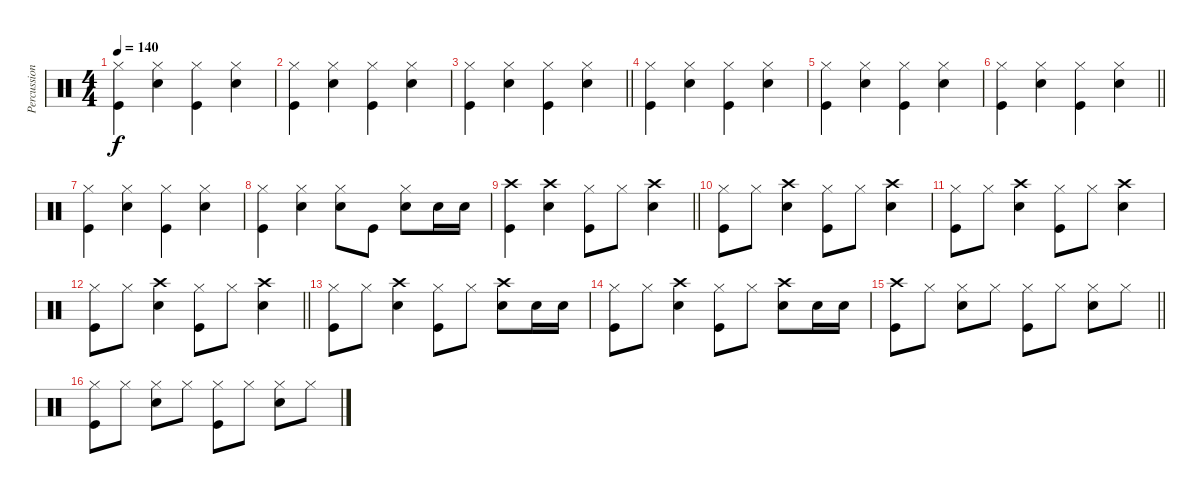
\track ("Percussion" "Percussion") {instrument percussion}
\staff {score}
\articulation defaults
\ts (4 4)
\tempo 140
\clef neutral
\ks c
("Kick (hit)" "Hi-Hat (closed)").4{dy f} ("Snare (hit) 2" "Hi-Hat (closed)").4 ("Kick (hit)" "Hi-Hat (closed)").4 ("Snare (hit) 2" "Hi-Hat (closed)").4 |
("Kick (hit)" "Hi-Hat (closed)").4 ("Snare (hit) 2" "Hi-Hat (closed)").4 ("Kick (hit)" "Hi-Hat (closed)").4 ("Snare (hit) 2" "Hi-Hat (closed)").4 |
\barLineRight lightlight
("Kick (hit)" "Hi-Hat (closed)").4 ("Snare (hit) 2" "Hi-Hat (closed)").4 ("Kick (hit)" "Hi-Hat (closed)").4 ("Snare (hit) 2" "Hi-Hat (closed)").4 |
("Kick (hit)" "Hi-Hat (closed)").4 ("Snare (hit) 2" "Hi-Hat (closed)").4 ("Kick (hit)" "Hi-Hat (closed)").4 ("Snare (hit) 2" "Hi-Hat (closed)").4 |
("Kick (hit)" "Hi-Hat (closed)").4 ("Snare (hit) 2" "Hi-Hat (closed)").4 ("Kick (hit)" "Hi-Hat (closed)").4 ("Snare (hit) 2" "Hi-Hat (closed)").4 |
\barLineRight lightlight
("Kick (hit)" "Hi-Hat (closed)").4 ("Snare (hit) 2" "Hi-Hat (closed)").4 ("Kick (hit)" "Hi-Hat (closed)").4 ("Snare (hit) 2" "Hi-Hat (closed)").4 |
("Kick (hit)" "Hi-Hat (closed)").4 ("Snare (hit) 2" "Hi-Hat (closed)").4 ("Kick (hit)" "Hi-Hat (closed)").4 ("Snare (hit) 2" "Hi-Hat (closed)").4 |
("Kick (hit)" "Hi-Hat (closed)").4 ("Snare (hit) 2" "Hi-Hat (closed)").4 ("Snare (hit) 2" "Hi-Hat (closed)").8 "Kick (hit)".8 ("Hi-Hat (closed)" "Snare (hit) 2").8 "Snare (hit) 2".16 "Snare (hit) 2".16 |
\barLineRight lightlight
("Crash high (hit)" "Kick (hit)").4 ("Crash high (hit)" "Snare (hit) 2").4 ("Kick (hit)" "Hi-Hat (closed)").8 "Hi-Hat (closed)".8 ("Crash high (hit)" "Snare (hit) 2").4 |
("Kick (hit)" "Hi-Hat (closed)").8 "Hi-Hat (closed)".8 ("Crash high (hit)" "Snare (hit) 2").4 ("Kick (hit)" "Hi-Hat (closed)").8 "Hi-Hat (closed)".8 ("Crash high (hit)" "Snare (hit) 2").4 |
("Kick (hit)" "Hi-Hat (closed)").8 "Hi-Hat (closed)".8 ("Crash high (hit)" "Snare (hit) 2").4 ("Kick (hit)" "Hi-Hat (closed)").8 "Hi-Hat (closed)".8 ("Crash high (hit)" "Snare (hit) 2").4 |
\barLineRight lightlight
("Kick (hit)" "Hi-Hat (closed)").8 "Hi-Hat (closed)".8 ("Crash high (hit)" "Snare (hit) 2").4 ("Kick (hit)" "Hi-Hat (closed)").8 "Hi-Hat (closed)".8 ("Crash high (hit)" "Snare (hit) 2").4 |
("Kick (hit)" "Hi-Hat (closed)").8 "Hi-Hat (closed)".8 ("Crash high (hit)" "Snare (hit) 2").4 ("Kick (hit)" "Hi-Hat (closed)").8 "Hi-Hat (closed)".8 ("Crash high (hit)" "Snare (hit) 2").8 "Snare (hit) 2".16 "Snare (hit) 2".16 |
("Kick (hit)" "Hi-Hat (closed)").8 "Hi-Hat (closed)".8 ("Crash high (hit)" "Snare (hit) 2").4 ("Kick (hit)" "Hi-Hat (closed)").8 "Hi-Hat (closed)".8 ("Crash high (hit)" "Snare (hit) 2").8 "Snare (hit) 2".16 "Snare (hit) 2".16 |
\barLineRight lightlight
("Crash high (hit)" "Kick (hit)").8 "Hi-Hat (closed)".8 ("Snare (hit) 2" "Hi-Hat (closed)").8 "Hi-Hat (closed)".8 ("Kick (hit)" "Hi-Hat (closed)").8 "Hi-Hat (closed)".8 ("Hi-Hat (closed)" "Snare (hit) 2").8 "Hi-Hat (closed)".8 |
("Hi-Hat (closed)" "Kick (hit)").8 "Hi-Hat (closed)".8 ("Snare (hit) 2" "Hi-Hat (closed)").8 "Hi-Hat (closed)".8 ("Kick (hit)" "Hi-Hat (closed)").8 "Hi-Hat (closed)".8 ("Hi-Hat (closed)" "Snare (hit) 2").8 "Hi-Hat (closed)".8
